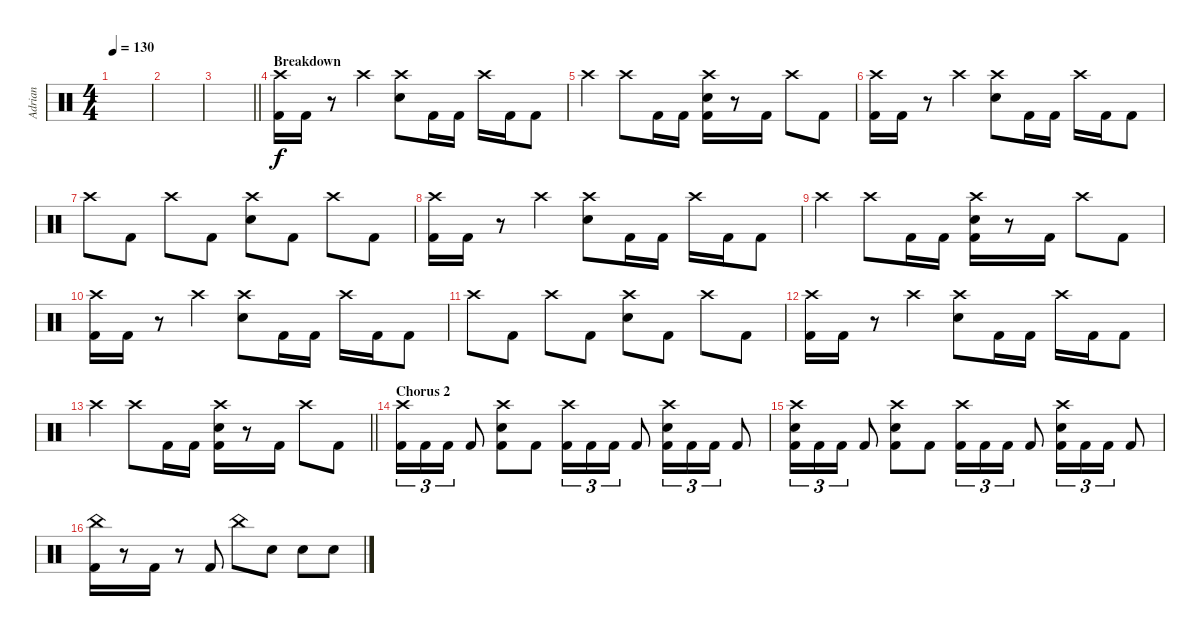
\track ("Adrian" "Adrian") {instrument percussion}
\staff {score}
\articulation defaults
\ts (4 4)
\tempo 130
\clef neutral
\ks c
|
|
\barLineRight lightlight
|
\section ("" "Breakdown")
("Crash high (hit)" "Kick (hit) 2").16 "Kick (hit) 2".16 r.8 "Crash high (hit)".4 ("Crash high (hit)" "Snare (hit) 2").8 "Kick (hit) 2".16 "Kick (hit) 2".16 "Crash high (hit)".16 "Kick (hit) 2".16 "Kick (hit) 2".8 |
"Crash high (hit)".4 "Crash high (hit)".8 "Kick (hit) 2".16 "Kick (hit) 2".16 ("Crash high (hit)" "Snare (hit) 2" "Kick (hit) 2").16 r.8 "Kick (hit) 2".16 "Crash high (hit)".8 "Kick (hit) 2".8 |
("Crash high (hit)" "Kick (hit) 2").16 "Kick (hit) 2".16 r.8 "Crash high (hit)".4 ("Crash high (hit)" "Snare (hit) 2").8 "Kick (hit) 2".16 "Kick (hit) 2".16 "Crash high (hit)".16 "Kick (hit) 2".16 "Kick (hit) 2".8 |
"Crash high (hit)".8 "Kick (hit) 2".8 "Crash high (hit)".8 "Kick (hit) 2".8 ("Crash high (hit)" "Snare (hit) 2").8 "Kick (hit) 2".8 "Crash high (hit)".8 "Kick (hit) 2".8 |
("Crash high (hit)" "Kick (hit) 2").16 "Kick (hit) 2".16 r.8 "Crash high (hit)".4 ("Crash high (hit)" "Snare (hit) 2").8 "Kick (hit) 2".16 "Kick (hit) 2".16 "Crash high (hit)".16 "Kick (hit) 2".16 "Kick (hit) 2".8 |
"Crash high (hit)".4 "Crash high (hit)".8 "Kick (hit) 2".16 "Kick (hit) 2".16 ("Crash high (hit)" "Snare (hit) 2" "Kick (hit) 2").16 r.8 "Kick (hit) 2".16 "Crash high (hit)".8 "Kick (hit) 2".8 |
("Crash high (hit)" "Kick (hit) 2").16 "Kick (hit) 2".16 r.8 "Crash high (hit)".4 ("Crash high (hit)" "Snare (hit) 2").8 "Kick (hit) 2".16 "Kick (hit) 2".16 "Crash high (hit)".16 "Kick (hit) 2".16 "Kick (hit) 2".8 |
"Crash high (hit)".8 "Kick (hit) 2".8 "Crash high (hit)".8 "Kick (hit) 2".8 ("Crash high (hit)" "Snare (hit) 2").8 "Kick (hit) 2".8 "Crash high (hit)".8 "Kick (hit) 2".8 |
("Crash high (hit)" "Kick (hit) 2").16 "Kick (hit) 2".16 r.8 "Crash high (hit)".4 ("Crash high (hit)" "Snare (hit) 2").8 "Kick (hit) 2".16 "Kick (hit) 2".16 "Crash high (hit)".16 "Kick (hit) 2".16 "Kick (hit) 2".8 |
\barLineRight lightlight "Crash high (hit)".4 "Crash high (hit)".8 "Kick (hit) 2".16 "Kick (hit) 2".16
("Crash high (hit)" "Snare (hit) 2" "Kick (hit) 2").16 r.8 "Kick (hit) 2".16 "Crash high (hit)".8 "Kick (hit) 2".8 |
\section ("" "Chorus 2")
("Crash high (hit)" "Kick (hit) 2").16{tu (3 2)} "Kick (hit) 2".16{tu (3 2)} "Kick (hit) 2".16{tu (3 2)} "Kick (hit) 2".8 ("Crash high (hit)" "Snare (hit) 2" "Kick (hit) 2").8 "Kick (hit) 2".8 ("Crash high (hit)" "Kick (hit) 2").16{tu (3 2)} "Kick (hit) 2".16{tu (3 2)} "Kick (hit) 2".16{tu (3 2)} "Kick (hit) 2".8 ("Crash high (hit)" "Snare (hit) 2" "Kick (hit) 2").16{tu (3 2)} "Kick (hit) 2".16{tu (3 2)} "Kick (hit) 2".16{tu (3 2)} "Kick (hit) 2".8 |
("Crash high (hit)" "Snare (hit) 2" "Kick (hit) 2").16{tu (3 2)} "Kick (hit) 2".16{tu (3 2)} "Kick (hit) 2".16{tu (3 2)} "Kick (hit) 2".8 ("Crash high (hit)" "Snare (hit) 2" "Kick (hit) 2").8 "Kick (hit) 2".8 ("Crash high (hit)" "Kick (hit) 2").16{tu (3 2)} "Kick (hit) 2".16{tu (3 2)} "Kick (hit) 2".16{tu (3 2)} "Kick (hit) 2".8 ("Crash high (hit)" "Snare (hit) 2" "Kick (hit) 2").16{tu (3 2)} "Kick (hit) 2".16{tu (3 2)} "Kick (hit) 2".16{tu (3 2)} "Kick (hit) 2".8 |
("China (hit)" "Kick (hit) 2").16 r.8 "Kick (hit) 2".16 r.8 "Kick (hit) 2".8 "China (hit)".8 "Snare (hit) 2".8 "Snare (hit) 2".8 "Snare (hit) 2".8
